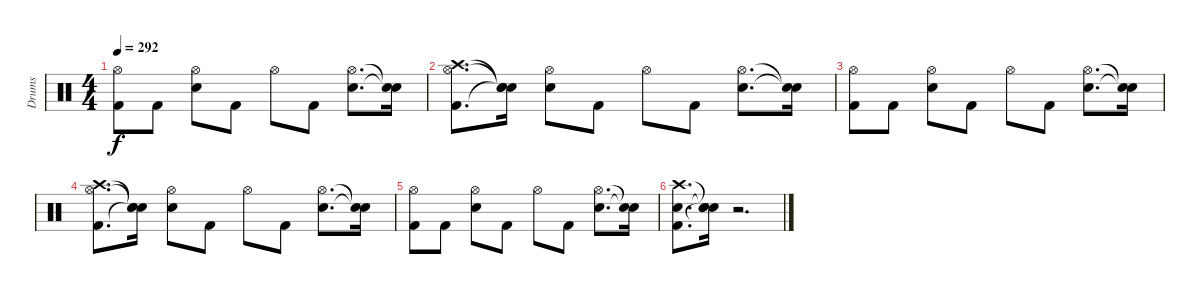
\track ("Drums" "Drums") {instrument percussion}
\staff {score}
\articulation defaults
\ts (4 4)
\tempo 292
\clef neutral
\ks c
("Kick (hit) 2" "Hi-Hat (open)").8{dy f} "Kick (hit) 2".8 ("Snare (hit) 2" "Hi-Hat (open)").8 "Kick (hit) 2".8 "Hi-Hat (open)".8 "Kick (hit) 2".8 ("Snare (hit) 2" "Hi-Hat (open)").8{d} ("Snare (hit)"{t} "Snare (hit)"{t}).16 |
("Kick (hit) 2" "Hi-Hat (open)" "Crash high (hit)").8{d} ("Snare (hit)"{t} "Snare (hit)"{t} "Snare (hit)"{t}).16 ("Snare (hit) 2" "Hi-Hat (open)").8 "Kick (hit) 2".8 "Hi-Hat (open)".8 "Kick (hit) 2".8 ("Snare (hit) 2" "Hi-Hat (open)").8{d} ("Snare (hit)"{t} "Snare (hit)"{t}).16 |
("Kick (hit) 2" "Hi-Hat (open)").8 "Kick (hit) 2".8 ("Snare (hit) 2" "Hi-Hat (open)").8 "Kick (hit) 2".8 "Hi-Hat (open)".8 "Kick (hit) 2".8 ("Snare (hit) 2" "Hi-Hat (open)").8{d} ("Snare (hit)"{t} "Snare (hit)"{t}).16 |
("Kick (hit) 2" "Hi-Hat (open)" "Crash high (hit)").8{d} ("Snare (hit)"{t} "Snare (hit)"{t} "Snare (hit)"{t}).16 ("Snare (hit) 2" "Hi-Hat (open)").8 "Kick (hit) 2".8 "Hi-Hat (open)".8 "Kick (hit) 2".8 ("Snare (hit) 2" "Hi-Hat (open)").8{d} ("Snare (hit)"{t} "Snare (hit)"{t}).16 |
("Kick (hit) 2" "Hi-Hat (open)").8 "Kick (hit) 2".8 ("Snare (hit) 2" "Hi-Hat (open)").8 "Kick (hit) 2".8 "Hi-Hat (open)".8 "Kick (hit) 2".8 ("Snare (hit) 2" "Hi-Hat (open)").8{d} ("Snare (hit)"{t} "Snare (hit)"{t}).16 |
("Kick (hit) 2" "Snare (hit) 2" "Crash high (hit)").8{d} ("Snare (hit)"{t} "Snare (hit)"{t} "Snare (hit)"{t}).16 r.2{d}
